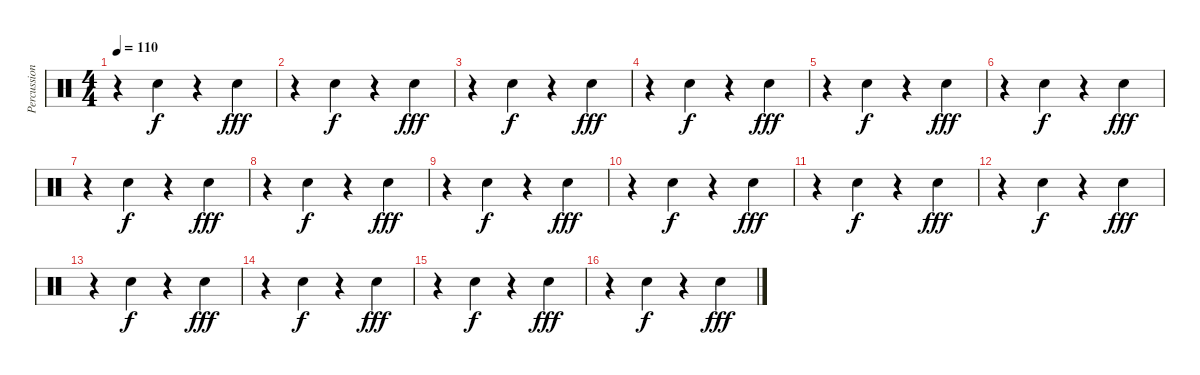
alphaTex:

\track ("Percussion" "Percussion") {instrument percussion}
\staff {score}
\articulation defaults
\ts (4 4)
\tempo 110
\clef neutral
\ks c
r.4{dy fff} "Snare (hit) 2".4{dy f} r.4 "Snare (hit) 2".4{dy fff} |
r.4 "Snare (hit) 2".4{dy f} r.4 "Snare (hit) 2".4{dy fff} |
r.4 "Snare (hit) 2".4{dy f} r.4 "Snare (hit) 2".4{dy fff} |
r.4 "Snare (hit) 2".4{dy f} r.4 "Snare (hit) 2".4{dy fff} |
r.4 "Snare (hit) 2".4{dy f} r.4 "Snare (hit) 2".4{dy fff} |
r.4 "Snare (hit) 2".4{dy f} r.4 "Snare (hit) 2".4{dy fff} |
r.4 "Snare (hit) 2".4{dy f} r.4 "Snare (hit) 2".4{dy fff} |
r.4 "Snare (hit) 2".4{dy f} r.4 "Snare (hit) 2".4{dy fff} |
r.4 "Snare (hit) 2".4{dy f} r.4 "Snare (hit) 2".4{dy fff} |
r.4 "Snare (hit) 2".4{dy f} r.4 "Snare (hit) 2".4{dy fff} |
r.4 "Snare (hit) 2".4{dy f} r.4 "Snare (hit) 2".4{dy fff} |
r.4 "Snare (hit) 2".4{dy f} r.4 "Snare (hit) 2".4{dy fff} |
r.4 "Snare (hit) 2".4{dy f} r.4 "Snare (hit) 2".4{dy fff} |
r.4 "Snare (hit) 2".4{dy f} r.4 "Snare (hit) 2".4{dy fff} |
r.4 "Snare (hit) 2".4{dy f} r.4 "Snare (hit) 2".4{dy fff} |
r.4 "Snare (hit) 2".4{dy f} r.4 "Snare (hit) 2".4{dy fff}
